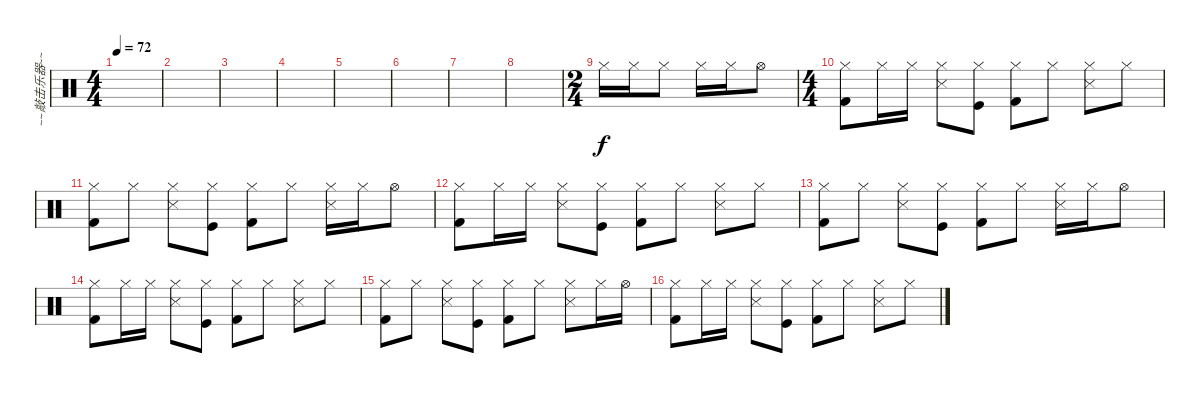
\track ("~~敲击乐器~~" "~~敲击乐器~~") {instrument percussion}
\staff {score}
\articulation defaults
\ts (4 4)
\tempo 72
\clef neutral
\ks c
|
|
|
|
|
|
|
|
\ts (2 4)
"Hi-Hat (closed)".16 "Hi-Hat (closed)".16 "Hi-Hat (closed)".8 "Hi-Hat (closed)".16 "Hi-Hat (closed)".16 "Hi-Hat (open)".8 |
\ts (4 4)
("Hi-Hat (closed)" "Kick (hit) 2").8 "Hi-Hat (closed)".16 "Hi-Hat (closed)".16 ("Snare (side stick) 3" "Hi-Hat (closed)").8 ("Hi-Hat (closed)" "Kick (hit)").8 ("Hi-Hat (closed)" "Kick (hit) 2").8 "Hi-Hat (closed)".8 ("Snare (side stick) 3" "Hi-Hat (closed)").8 "Hi-Hat (closed)".8 |
("Hi-Hat (closed)" "Kick (hit) 2").8 "Hi-Hat (closed)".8 ("Snare (side stick) 3" "Hi-Hat (closed)").8 ("Hi-Hat (closed)" "Kick (hit)").8 ("Hi-Hat (closed)" "Kick (hit) 2").8 "Hi-Hat (closed)".8 ("Snare (side stick) 3" "Hi-Hat (closed)").16 "Hi-Hat (closed)".16 "Hi-Hat (open)".8 |
("Hi-Hat (closed)" "Kick (hit) 2").8 "Hi-Hat (closed)".16 "Hi-Hat (closed)".16 ("Snare (side stick) 3" "Hi-Hat (closed)").8 ("Hi-Hat (closed)" "Kick (hit)").8 ("Hi-Hat (closed)" "Kick (hit) 2").8 "Hi-Hat (closed)".8 ("Snare (side stick) 3" "Hi-Hat (closed)").8 "Hi-Hat (closed)".8 |
("Hi-Hat (closed)" "Kick (hit) 2").8 "Hi-Hat (closed)".8 ("Snare (side stick) 3" "Hi-Hat (closed)").8 ("Hi-Hat (closed)" "Kick (hit)").8 ("Hi-Hat (closed)" "Kick (hit) 2").8 "Hi-Hat (closed)".8 ("Snare (side stick) 3" "Hi-Hat (closed)").16 "Hi-Hat (closed)".16 "Hi-Hat (open)".8 |
("Hi-Hat (closed)" "Kick (hit) 2").8 "Hi-Hat (closed)".16 "Hi-Hat (closed)".16 ("Snare (side stick) 3" "Hi-Hat (closed)").8 ("Hi-Hat (closed)" "Kick (hit)").8 ("Hi-Hat (closed)" "Kick (hit) 2").8 "Hi-Hat (closed)".8 ("Snare (side stick) 3" "Hi-Hat (closed)").8 "Hi-Hat (closed)".8 |
("Hi-Hat (closed)" "Kick (hit) 2").8 "Hi-Hat (closed)".8 ("Snare (side stick) 3" "Hi-Hat (closed)").8 ("Hi-Hat (closed)" "Kick (hit)").8 ("Hi-Hat (closed)" "Kick (hit) 2").8 "Hi-Hat (closed)".8 ("Snare (side stick) 3" "Hi-Hat (closed)").8 "Hi-Hat (closed)".16 "Hi-Hat (open)".16 |
("Hi-Hat (closed)" "Kick (hit) 2").8 "Hi-Hat (closed)".16 "Hi-Hat (closed)".16 ("Snare (side stick) 3" "Hi-Hat (closed)").8 ("Hi-Hat (closed)" "Kick (hit)").8 ("Hi-Hat (closed)" "Kick (hit) 2").8 "Hi-Hat (closed)".8 ("Snare (side stick) 3" "Hi-Hat (closed)").8 "Hi-Hat (closed)".8
